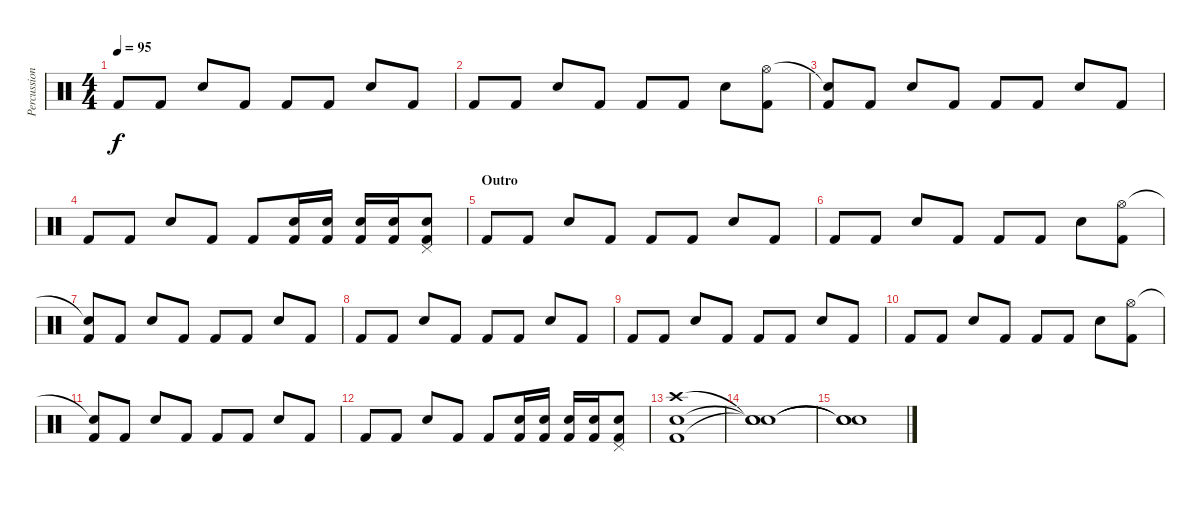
\track ("Percussion" "Percussion") {instrument percussion}
\staff {score}
\articulation defaults
\ts (4 4)
\tempo 95
\clef neutral
\ks c "Kick (hit) 2".8{dy f} "Kick (hit) 2".8 "Electric Snare (hit)".8 "Kick (hit) 2".8 "Kick (hit) 2".8 "Kick (hit) 2".8 "Electric Snare (hit)".8 "Kick (hit) 2".8
|
"Kick (hit) 2".8 "Kick (hit) 2".8 "Electric Snare (hit)".8 "Kick (hit) 2".8 "Kick (hit) 2".8 "Kick (hit) 2".8 "Electric Snare (hit)".8 ("Hi-Hat (open)" "Kick (hit) 2").8 |
("Snare (hit)"{t} "Kick (hit) 2").8 "Kick (hit) 2".8 "Electric Snare (hit)".8 "Kick (hit) 2".8 "Kick (hit) 2".8 "Kick (hit) 2".8 "Electric Snare (hit)".8 "Kick (hit) 2".8 |
"Kick (hit) 2".8 "Kick (hit) 2".8 "Electric Snare (hit)".8 "Kick (hit) 2".8 "Kick (hit) 2".8 ("Electric Snare (hit)" "Kick (hit) 2").16 ("Electric Snare (hit)" "Kick (hit) 2").16 ("Electric Snare (hit)" "Kick (hit) 2").16 ("Electric Snare (hit)" "Kick (hit) 2").16 ("Pedal Hi-Hat (hit)" "Electric Snare (hit)" "Kick (hit) 2").8 |
\section ("" "Outro")
"Kick (hit) 2".8 "Kick (hit) 2".8 "Electric Snare (hit)".8 "Kick (hit) 2".8 "Kick (hit) 2".8 "Kick (hit) 2".8 "Electric Snare (hit)".8 "Kick (hit) 2".8 |
"Kick (hit) 2".8 "Kick (hit) 2".8 "Electric Snare (hit)".8 "Kick (hit) 2".8 "Kick (hit) 2".8 "Kick (hit) 2".8 "Electric Snare (hit)".8 ("Hi-Hat (open)" "Kick (hit) 2").8 |
("Snare (hit)"{t} "Kick (hit) 2").8 "Kick (hit) 2".8 "Electric Snare (hit)".8 "Kick (hit) 2".8 "Kick (hit) 2".8 "Kick (hit) 2".8 "Electric Snare (hit)".8 "Kick (hit) 2".8 |
"Kick (hit) 2".8 "Kick (hit) 2".8 "Electric Snare (hit)".8 "Kick (hit) 2".8 "Kick (hit) 2".8 "Kick (hit) 2".8 "Electric Snare (hit)".8 "Kick (hit) 2".8 |
"Kick (hit) 2".8 "Kick (hit) 2".8 "Electric Snare (hit)".8 "Kick (hit) 2".8 "Kick (hit) 2".8 "Kick (hit) 2".8 "Electric Snare (hit)".8 "Kick (hit) 2".8 |
"Kick (hit) 2".8 "Kick (hit) 2".8 "Electric Snare (hit)".8 "Kick (hit) 2".8 "Kick (hit) 2".8 "Kick (hit) 2".8 "Electric Snare (hit)".8 ("Hi-Hat (open)" "Kick (hit) 2").8 |
("Snare (hit)"{t} "Kick (hit) 2").8 "Kick (hit) 2".8 "Electric Snare (hit)".8 "Kick (hit) 2".8 "Kick (hit) 2".8 "Kick (hit) 2".8 "Electric Snare (hit)".8 "Kick (hit) 2".8 |
"Kick (hit) 2".8 "Kick (hit) 2".8 "Electric Snare (hit)".8 "Kick (hit) 2".8 "Kick (hit) 2".8 ("Electric Snare (hit)" "Kick (hit) 2").16 ("Electric Snare (hit)" "Kick (hit) 2").16 ("Electric Snare (hit)" "Kick (hit) 2").16 ("Electric Snare (hit)" "Kick (hit) 2").16 ("Pedal Hi-Hat (hit)" "Electric Snare (hit)" "Kick (hit) 2").8 |
("Crash high (hit)" "Electric Snare (hit)" "Kick (hit) 2").1 |
("Snare (hit)"{t} "Snare (hit)"{t} "Snare (hit)"{t}).1 |
("Snare (hit)"{t} "Snare (hit)"{t} "Snare (hit)"{t}).1{volume 0}
